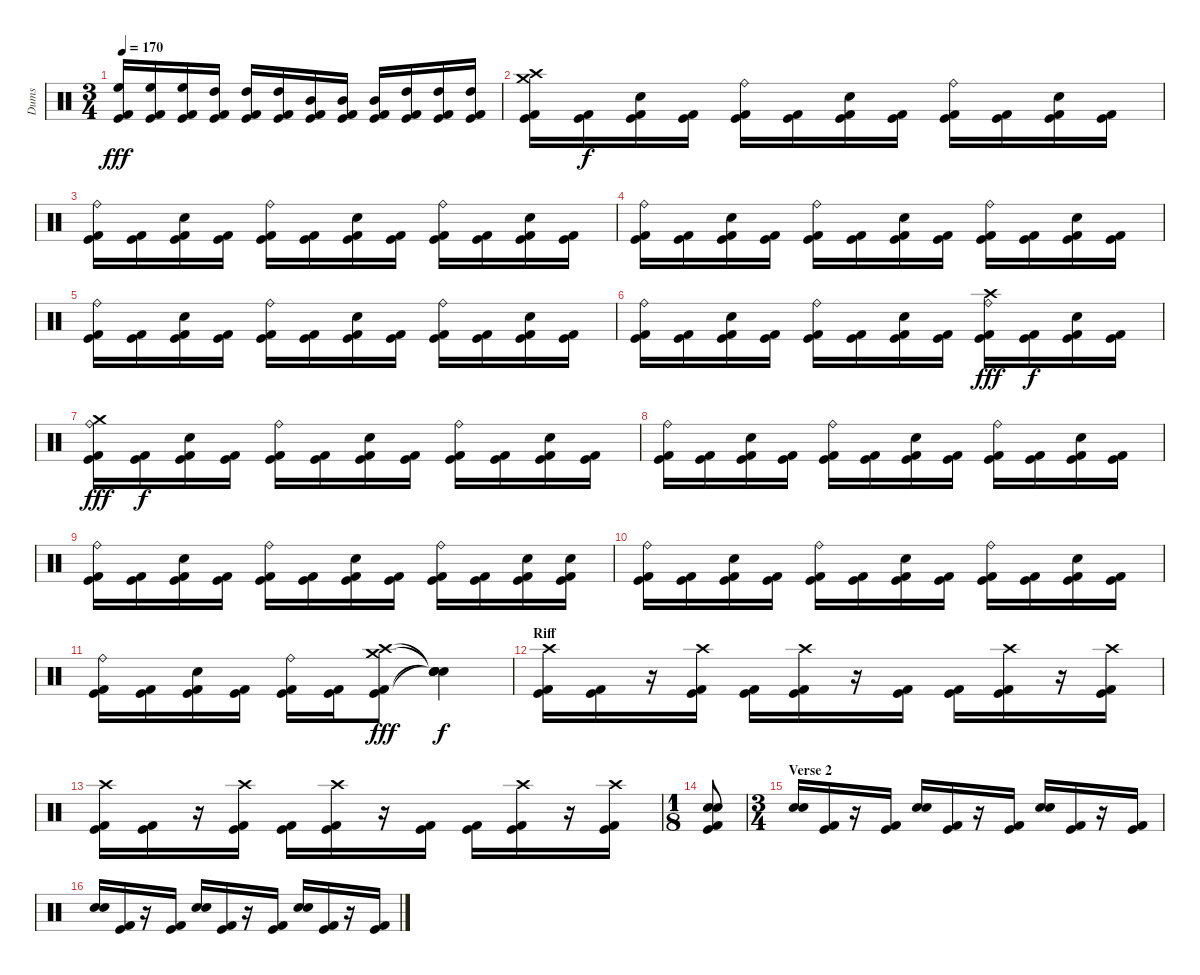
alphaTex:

\track ("Dums" "Dums") {instrument percussion}
\staff {score}
\articulation defaults
\ts (3 4)
\tempo 170
\clef neutral
\ks c
("High Floor Tom (hit)" "Kick (hit)" "Kick (hit) 2").16{dy fff} ("High Floor Tom (hit)" "Kick (hit)" "Kick (hit) 2").16 ("High Floor Tom (hit)" "Kick (hit)" "Kick (hit) 2").16 ("High Tom (hit)" "Kick (hit)" "Kick (hit) 2").16 ("High Tom (hit)" "Kick (hit)" "Kick (hit) 2").16 ("High Tom (hit)" "Kick (hit)" "Kick (hit) 2").16 ("Mid Tom (hit)" "Kick (hit)" "Kick (hit) 2").16 ("Mid Tom (hit)" "Kick (hit)" "Kick (hit) 2").16 ("Mid Tom (hit)" "Kick (hit)" "Kick (hit) 2").16 ("High Tom (hit)" "Kick (hit)" "Kick (hit) 2").16 ("High Tom (hit)" "Kick (hit)" "Kick (hit) 2").16 ("High Tom (hit)" "Kick (hit)" "Kick (hit) 2").16 |
("Crash high (hit)" "Crash medium (hit)" "Kick (hit)" "Kick (hit) 2").16 ("Kick (hit)" "Kick (hit) 2").16{dy f} ("Electric Snare (hit)" "Kick (hit)" "Kick (hit) 2").16 ("Kick (hit)" "Kick (hit) 2").16 ("Ride (bell)" "Kick (hit)" "Kick (hit) 2").16 ("Kick (hit)" "Kick (hit) 2").16 ("Electric Snare (hit)" "Kick (hit)" "Kick (hit) 2").16 ("Kick (hit)" "Kick (hit) 2").16 ("Ride (bell)" "Kick (hit)" "Kick (hit) 2").16 ("Kick (hit)" "Kick (hit) 2").16 ("Electric Snare (hit)" "Kick (hit)" "Kick (hit) 2").16 ("Kick (hit)" "Kick (hit) 2").16 |
("Ride (bell)" "Kick (hit)" "Kick (hit) 2").16 ("Kick (hit)" "Kick (hit) 2").16 ("Electric Snare (hit)" "Kick (hit)" "Kick (hit) 2").16 ("Kick (hit)" "Kick (hit) 2").16 ("Ride (bell)" "Kick (hit)" "Kick (hit) 2").16 ("Kick (hit)" "Kick (hit) 2").16 ("Electric Snare (hit)" "Kick (hit)" "Kick (hit) 2").16 ("Kick (hit)" "Kick (hit) 2").16 ("Ride (bell)" "Kick (hit)" "Kick (hit) 2").16 ("Kick (hit)" "Kick (hit) 2").16 ("Electric Snare (hit)" "Kick (hit)" "Kick (hit) 2").16 ("Kick (hit)" "Kick (hit) 2").16 |
("Ride (bell)" "Kick (hit)" "Kick (hit) 2").16 ("Kick (hit)" "Kick (hit) 2").16 ("Electric Snare (hit)" "Kick (hit)" "Kick (hit) 2").16 ("Kick (hit)" "Kick (hit) 2").16 ("Ride (bell)" "Kick (hit)" "Kick (hit) 2").16 ("Kick (hit)" "Kick (hit) 2").16 ("Electric Snare (hit)" "Kick (hit)" "Kick (hit) 2").16 ("Kick (hit)" "Kick (hit) 2").16 ("Ride (bell)" "Kick (hit)" "Kick (hit) 2").16 ("Kick (hit)" "Kick (hit) 2").16 ("Electric Snare (hit)" "Kick (hit)" "Kick (hit) 2").16 ("Kick (hit)" "Kick (hit) 2").16 |
("Ride (bell)" "Kick (hit)" "Kick (hit) 2").16 ("Kick (hit)" "Kick (hit) 2").16 ("Electric Snare (hit)" "Kick (hit)" "Kick (hit) 2").16 ("Kick (hit)" "Kick (hit) 2").16 ("Ride (bell)" "Kick (hit)" "Kick (hit) 2").16 ("Kick (hit)" "Kick (hit) 2").16 ("Electric Snare (hit)" "Kick (hit)" "Kick (hit) 2").16 ("Kick (hit)" "Kick (hit) 2").16 ("Ride (bell)" "Kick (hit)" "Kick (hit) 2").16 ("Kick (hit)" "Kick (hit) 2").16 ("Electric Snare (hit)" "Kick (hit)" "Kick (hit) 2").16 ("Kick (hit)" "Kick (hit) 2").16 |
("Ride (bell)" "Kick (hit)" "Kick (hit) 2").16 ("Kick (hit)" "Kick (hit) 2").16 ("Electric Snare (hit)" "Kick (hit)" "Kick (hit) 2").16 ("Kick (hit)" "Kick (hit) 2").16 ("Ride (bell)" "Kick (hit)" "Kick (hit) 2").16 ("Kick (hit)" "Kick (hit) 2").16 ("Electric Snare (hit)" "Kick (hit)" "Kick (hit) 2").16 ("Kick (hit)" "Kick (hit) 2").16 ("Crash high (hit)" "Ride (bell)" "Kick (hit)" "Kick (hit) 2").16{dy fff} ("Kick (hit)" "Kick (hit) 2").16{dy f} ("Electric Snare (hit)" "Kick (hit)" "Kick (hit) 2").16 ("Kick (hit)" "Kick (hit) 2").16 |
("Crash medium (hit)" "Ride (bell)" "Kick (hit)" "Kick (hit) 2").16{dy fff} ("Kick (hit)" "Kick (hit) 2").16{dy f} ("Electric Snare (hit)" "Kick (hit)" "Kick (hit) 2").16 ("Kick (hit)" "Kick (hit) 2").16 ("Ride (bell)" "Kick (hit)" "Kick (hit) 2").16 ("Kick (hit)" "Kick (hit) 2").16 ("Electric Snare (hit)" "Kick (hit)" "Kick (hit) 2").16 ("Kick (hit)" "Kick (hit) 2").16 ("Ride (bell)" "Kick (hit)" "Kick (hit) 2").16 ("Kick (hit)" "Kick (hit) 2").16 ("Electric Snare (hit)" "Kick (hit)" "Kick (hit) 2").16 ("Kick (hit)" "Kick (hit) 2").16 |
("Ride (bell)" "Kick (hit)" "Kick (hit) 2").16 ("Kick (hit)" "Kick (hit) 2").16 ("Electric Snare (hit)" "Kick (hit)" "Kick (hit) 2").16 ("Kick (hit)" "Kick (hit) 2").16 ("Ride (bell)" "Kick (hit)" "Kick (hit) 2").16 ("Kick (hit)" "Kick (hit) 2").16 ("Electric Snare (hit)" "Kick (hit)" "Kick (hit) 2").16 ("Kick (hit)" "Kick (hit) 2").16 ("Ride (bell)" "Kick (hit)" "Kick (hit) 2").16 ("Kick (hit)" "Kick (hit) 2").16 ("Electric Snare (hit)" "Kick (hit)" "Kick (hit) 2").16 ("Kick (hit)" "Kick (hit) 2").16 |
("Ride (bell)" "Kick (hit)" "Kick (hit) 2").16 ("Kick (hit)" "Kick (hit) 2").16 ("Electric Snare (hit)" "Kick (hit)" "Kick (hit) 2").16 ("Kick (hit)" "Kick (hit) 2").16 ("Ride (bell)" "Kick (hit)" "Kick (hit) 2").16 ("Kick (hit)" "Kick (hit) 2").16 ("Electric Snare (hit)" "Kick (hit)" "Kick (hit) 2").16 ("Kick (hit)" "Kick (hit) 2").16 ("Ride (bell)" "Kick (hit)" "Kick (hit) 2").16 ("Kick (hit)" "Kick (hit) 2").16 ("Electric Snare (hit)" "Kick (hit)" "Kick (hit) 2").16 ("Electric Snare (hit)" "Kick (hit)" "Kick (hit) 2").16 |
("Ride (bell)" "Kick (hit)" "Kick (hit) 2").16 ("Kick (hit)" "Kick (hit) 2").16 ("Electric Snare (hit)" "Kick (hit)" "Kick (hit) 2").16 ("Kick (hit)" "Kick (hit) 2").16 ("Ride (bell)" "Kick (hit)" "Kick (hit) 2").16 ("Kick (hit)" "Kick (hit) 2").16 ("Electric Snare (hit)" "Kick (hit)" "Kick (hit) 2").16 ("Kick (hit)" "Kick (hit) 2").16 ("Ride (bell)" "Kick (hit)" "Kick (hit) 2").16 ("Kick (hit)" "Kick (hit) 2").16 ("Electric Snare (hit)" "Kick (hit)" "Kick (hit) 2").16 ("Kick (hit)" "Kick (hit) 2").16 |
("Ride (bell)" "Kick (hit)" "Kick (hit) 2").16 ("Kick (hit)" "Kick (hit) 2").16 ("Electric Snare (hit)" "Kick (hit)" "Kick (hit) 2").16 ("Kick (hit)" "Kick (hit) 2").16 ("Ride (bell)" "Kick (hit)" "Kick (hit) 2").16 ("Kick (hit)" "Kick (hit) 2").16 ("Crash high (hit)" "Crash medium (hit)" "Kick (hit)" "Kick (hit) 2").8{dy fff} ("Snare (hit)"{t} "Snare (hit)"{t} "Snare (hit)"{t} "Snare (hit)"{t}).4{dy f} |
\section ("" "Riff")
("Crash high (hit)" "Kick (hit)" "Kick (hit) 2").16 ("Kick (hit)" "Kick (hit) 2").16 r.16 ("Crash high (hit)" "Kick (hit)" "Kick (hit) 2").16 ("Kick (hit)" "Kick (hit) 2").16 ("Crash high (hit)" "Kick (hit)" "Kick (hit) 2").16 r.16 ("Kick (hit)" "Kick (hit) 2").16 ("Kick (hit)" "Kick (hit) 2").16 ("Crash high (hit)" "Kick (hit)" "Kick (hit) 2").16 r.16 ("Crash high (hit)" "Kick (hit)" "Kick (hit) 2").16 |
("Crash high (hit)" "Kick (hit)" "Kick (hit) 2").16 ("Kick (hit)" "Kick (hit) 2").16 r.16 ("Crash high (hit)" "Kick (hit)" "Kick (hit) 2").16 ("Kick (hit)" "Kick (hit) 2").16 ("Crash high (hit)" "Kick (hit)" "Kick (hit) 2").16 r.16 ("Kick (hit)" "Kick (hit) 2").16 ("Kick (hit)" "Kick (hit) 2").16 ("Crash high (hit)" "Kick (hit)" "Kick (hit) 2").16 r.16 ("Crash high (hit)" "Kick (hit)" "Kick (hit) 2").16 |
\ts (1 8)
("Snare (hit) 2" "Electric Snare (hit)" "Kick (hit)" "Kick (hit) 2").8 |
\ts (3 4)
\section ("" "Verse 2")
("Snare (hit) 2" "Electric Snare (hit)").16 ("Kick (hit)" "Kick (hit) 2").16 r.16 ("Kick (hit)" "Kick (hit) 2").16 ("Snare (hit) 2" "Electric Snare (hit)").16 ("Kick (hit)" "Kick (hit) 2").16 r.16 ("Kick (hit)" "Kick (hit) 2").16 ("Snare (hit) 2" "Electric Snare (hit)").16 ("Kick (hit)" "Kick (hit) 2").16 r.16 ("Kick (hit)" "Kick (hit) 2").16 |
("Snare (hit) 2" "Electric Snare (hit)").16 ("Kick (hit)" "Kick (hit) 2").16 r.16 ("Kick (hit)" "Kick (hit) 2").16 ("Snare (hit) 2" "Electric Snare (hit)").16 ("Kick (hit)" "Kick (hit) 2").16 r.16 ("Kick (hit)" "Kick (hit) 2").16 ("Snare (hit) 2" "Electric Snare (hit)").16 ("Kick (hit)" "Kick (hit) 2").16 r.16 ("Kick (hit)" "Kick (hit) 2").16
